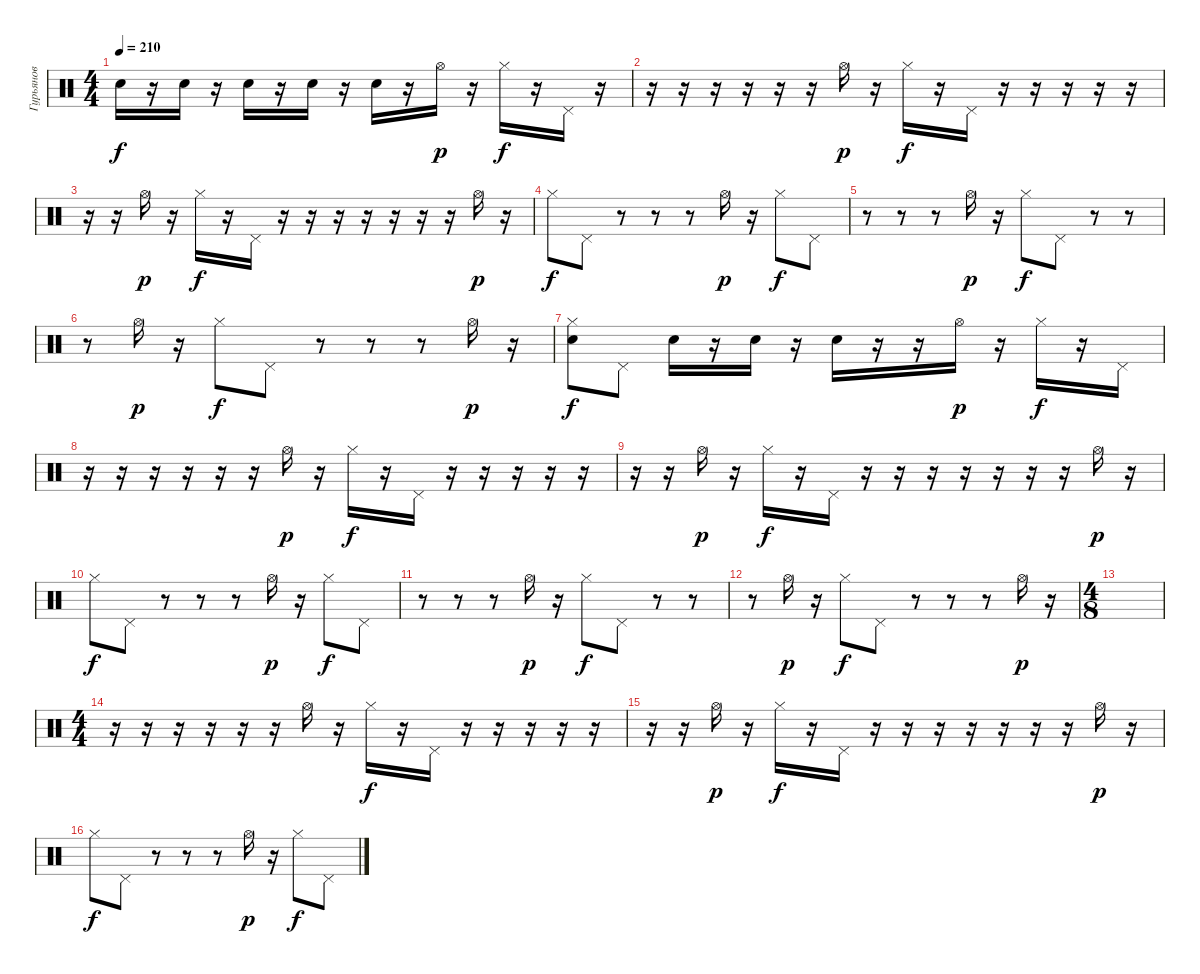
\track ("Гурьянов" "Гурьянов") {instrument percussion}
\staff {score}
\articulation defaults
\ts (4 4)
\tempo 210
\clef neutral
\ks c "Snare (hit) 2".16{dy f}
r.16 "Snare (hit) 2".16 r.16 "Snare (hit) 2".16 r.16 "Snare (hit) 2".16 r.16 "Snare (hit) 2".16 r.16 "Hi-Hat (open)".16{dy p} r.16 "Hi-Hat (closed)".16{dy f} r.16 "Pedal Hi-Hat (hit)".16 r.16 |
r.16 r.16 r.16 r.16 r.16 r.16 "Hi-Hat (open)".16{dy p} r.16 "Hi-Hat (closed)".16{dy f} r.16 "Pedal Hi-Hat (hit)".16 r.16 r.16 r.16 r.16 r.16 |
r.16 r.16 "Hi-Hat (open)".16{dy p} r.16 "Hi-Hat (closed)".16{dy f} r.16 "Pedal Hi-Hat (hit)".16 r.16 r.16 r.16 r.16 r.16 r.16 r.16 "Hi-Hat (open)".16{dy p} r.16 |
"Hi-Hat (closed)".8{dy f} "Pedal Hi-Hat (hit)".8 r.8 r.8 r.8 "Hi-Hat (open)".16{dy p} r.16 "Hi-Hat (closed)".8{dy f} "Pedal Hi-Hat (hit)".8 |
r.8 r.8 r.8 "Hi-Hat (open)".16{dy p} r.16 "Hi-Hat (closed)".8{dy f} "Pedal Hi-Hat (hit)".8 r.8 r.8 |
r.8 "Hi-Hat (open)".16{dy p} r.16 "Hi-Hat (closed)".8{dy f} "Pedal Hi-Hat (hit)".8 r.8 r.8 r.8 "Hi-Hat (open)".16{dy p} r.16 |
("Snare (hit) 2" "Hi-Hat (closed)").8{dy f} "Pedal Hi-Hat (hit)".8 "Snare (hit) 2".16 r.16 "Snare (hit) 2".16 r.16 "Snare (hit) 2".16 r.16 r.16 "Hi-Hat (open)".16{dy p} r.16 "Hi-Hat (closed)".16{dy f} r.16 "Pedal Hi-Hat (hit)".16 |
r.16 r.16 r.16 r.16 r.16 r.16 "Hi-Hat (open)".16{dy p} r.16 "Hi-Hat (closed)".16{dy f} r.16 "Pedal Hi-Hat (hit)".16 r.16 r.16 r.16 r.16 r.16 |
r.16 r.16 "Hi-Hat (open)".16{dy p} r.16 "Hi-Hat (closed)".16{dy f} r.16 "Pedal Hi-Hat (hit)".16 r.16 r.16 r.16 r.16 r.16 r.16 r.16 "Hi-Hat (open)".16{dy p} r.16 |
"Hi-Hat (closed)".8{dy f} "Pedal Hi-Hat (hit)".8 r.8 r.8 r.8 "Hi-Hat (open)".16{dy p} r.16 "Hi-Hat (closed)".8{dy f} "Pedal Hi-Hat (hit)".8 |
r.8 r.8 r.8 "Hi-Hat (open)".16{dy p} r.16 "Hi-Hat (closed)".8{dy f} "Pedal Hi-Hat (hit)".8 r.8 r.8 |
r.8 "Hi-Hat (open)".16{dy p} r.16 "Hi-Hat (closed)".8{dy f} "Pedal Hi-Hat (hit)".8 r.8 r.8 r.8 "Hi-Hat (open)".16{dy p} r.16 |
\ts (4 8)
|
\ts (4 4)
r.16 r.16 r.16 r.16 r.16 r.16 "Hi-Hat (open)".16 r.16 "Hi-Hat (closed)".16{dy f} r.16 "Pedal Hi-Hat (hit)".16 r.16 r.16 r.16 r.16 r.16 |
r.16 r.16 "Hi-Hat (open)".16{dy p} r.16 "Hi-Hat (closed)".16{dy f} r.16 "Pedal Hi-Hat (hit)".16 r.16 r.16 r.16 r.16 r.16 r.16 r.16 "Hi-Hat (open)".16{dy p} r.16 |
"Hi-Hat (closed)".8{dy f} "Pedal Hi-Hat (hit)".8 r.8 r.8 r.8 "Hi-Hat (open)".16{dy p} r.16 "Hi-Hat (closed)".8{dy f} "Pedal Hi-Hat (hit)".8
